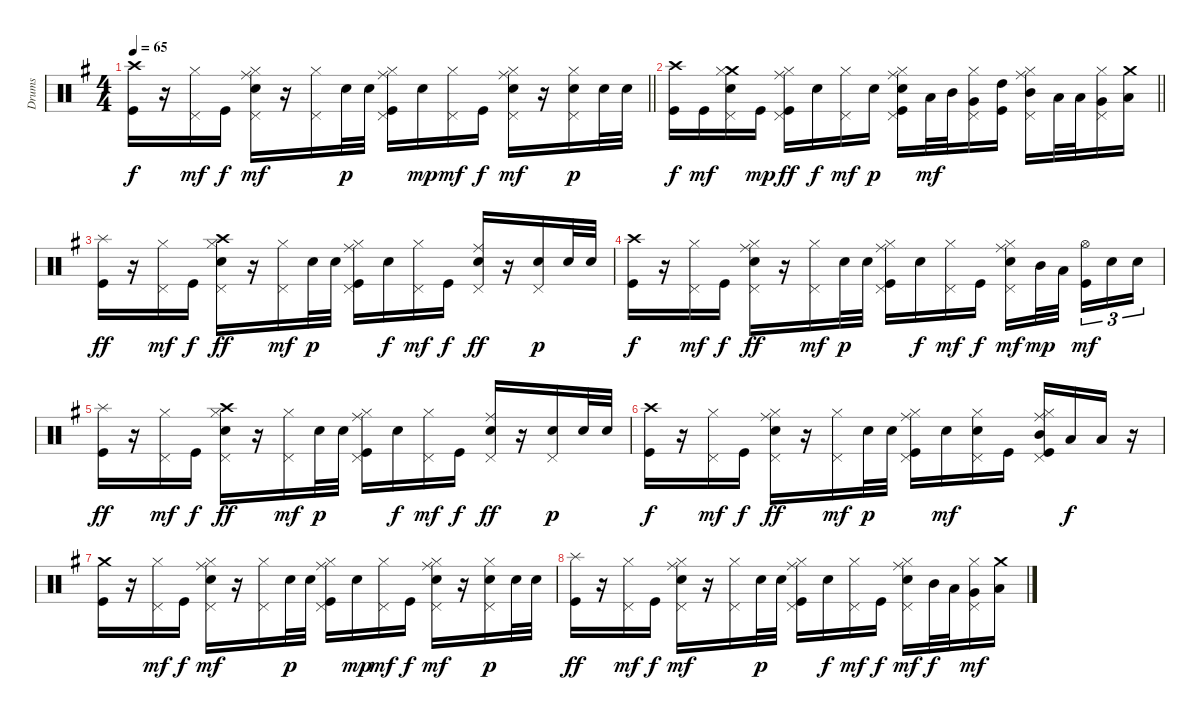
\track ("Drums" "Drums") {instrument percussion}
\staff {score}
\articulation defaults
\ts (4 4)
\tempo 65
\clef neutral
\barLineRight lightlight
\ks eminor
("Crash high (hit)" "Kick (hit)").16{dy f} r.16 ("Hi-Hat (closed)" "Pedal Hi-Hat (hit)").16{dy mf} "Kick (hit)".16{dy f} ("Ride (middle)" "Hi-Hat (closed)" "Pedal Hi-Hat (hit)" "Electric Snare (hit)").16{dy mf} r.16 ("Hi-Hat (closed)" "Pedal Hi-Hat (hit)").16 "Electric Snare (hit)".32{dy p} "Electric Snare (hit)".32 ("Ride (middle)" "Hi-Hat (closed)" "Pedal Hi-Hat (hit)" "Kick (hit)").16 "Electric Snare (hit)".16{dy mp} ("Hi-Hat (closed)" "Pedal Hi-Hat (hit)").16{dy mf} "Kick (hit)".16{dy f} ("Ride (middle)" "Hi-Hat (closed)" "Pedal Hi-Hat (hit)" "Electric Snare (hit)").16{dy mf} r.16 ("Hi-Hat (closed)" "Pedal Hi-Hat (hit)" "Electric Snare (hit)").16{dy p} "Electric Snare (hit)".32 "Electric Snare (hit)".32 |
\barLineRight lightlight
("Crash high (hit)" "Kick (hit)").16{dy f} "Kick (hit)".16{dy mf} ("Crash medium (hit)" "Hi-Hat (closed)" "Pedal Hi-Hat (hit)" "Electric Snare (hit)").16 "Kick (hit)".16{dy mp} ("Ride (middle)" "Hi-Hat (closed)" "Pedal Hi-Hat (hit)" "Kick (hit)").16{dy ff} "Electric Snare (hit)".16{dy f} ("Hi-Hat (closed)" "Pedal Hi-Hat (hit)").16{dy mf} "Electric Snare (hit)".16{dy p} ("Ride (middle)" "Hi-Hat (closed)" "Pedal Hi-Hat (hit)" "Electric Snare (hit)" "Kick (hit)").16 "Low Tom (hit)".32{dy mf} "Mid Tom (hit)".32 ("Hi-Hat (closed)" "Pedal Hi-Hat (hit)" "Very Low Tom (hit)").16 ("High Tom (hit)" "Kick (hit)").16 ("Ride (middle)" "Hi-Hat (closed)" "Pedal Hi-Hat (hit)" "Mid Tom (hit)").16 "Low Tom (hit)".32 "Low Tom (hit)".32 ("Hi-Hat (closed)" "Pedal Hi-Hat (hit)" "Very Low Tom (hit)").16 ("Crash medium (hit)" "Low Floor Tom (hit)").16 |
\section ("" "")
("Splash (hit)" "Kick (hit)").16{dy ff} r.16 ("Hi-Hat (closed)" "Pedal Hi-Hat (hit)").16{dy mf} "Kick (hit)".16{dy f} ("Crash high (hit)" "Hi-Hat (closed)" "Pedal Hi-Hat (hit)" "Electric Snare (hit)").16{dy ff} r.16 ("Hi-Hat (closed)" "Pedal Hi-Hat (hit)").16{dy mf} "Electric Snare (hit)".32{dy p} "Electric Snare (hit)".32 ("Ride (middle)" "Hi-Hat (closed)" "Pedal Hi-Hat (hit)" "Kick (hit)").16 "Electric Snare (hit)".16{dy f} ("Hi-Hat (closed)" "Pedal Hi-Hat (hit)").16{dy mf} "Kick (hit)".16{dy f} ("Ride (middle)" "Pedal Hi-Hat (hit)" "Electric Snare (hit)").16{dy ff} r.16 ("Pedal Hi-Hat (hit)" "Electric Snare (hit)").16{dy p} "Electric Snare (hit)".32 "Electric Snare (hit)".32 |
("Crash high (hit)" "Kick (hit)").16{dy f} r.16 ("Hi-Hat (closed)" "Pedal Hi-Hat (hit)").16{dy mf} "Kick (hit)".16{dy f} ("Ride (middle)" "Hi-Hat (closed)" "Pedal Hi-Hat (hit)" "Electric Snare (hit)").16{dy ff} r.16 ("Hi-Hat (closed)" "Pedal Hi-Hat (hit)").16{dy mf} "Electric Snare (hit)".32{dy p} "Electric Snare (hit)".32 ("Ride (middle)" "Hi-Hat (closed)" "Pedal Hi-Hat (hit)" "Kick (hit)").16 "Electric Snare (hit)".16{dy f} ("Hi-Hat (closed)" "Pedal Hi-Hat (hit)").16{dy mf} "Kick (hit)".16{dy f} ("Ride (middle)" "Hi-Hat (closed)" "Pedal Hi-Hat (hit)" "Electric Snare (hit)").16{dy mf} "Mid Tom (hit)".32{dy mp} "Low Tom (hit)".32{beam splitsecondary} ("Hi-Hat (open)" "Kick (hit)").16{tu (3 2) dy mf} "Electric Snare (hit)".16{tu (3 2)} "Electric Snare (hit)".16{tu (3 2)} |
("Splash (hit)" "Kick (hit)").16{dy ff} r.16 ("Hi-Hat (closed)" "Pedal Hi-Hat (hit)").16{dy mf} "Kick (hit)".16{dy f} ("Crash high (hit)" "Hi-Hat (closed)" "Pedal Hi-Hat (hit)" "Electric Snare (hit)").16{dy ff} r.16 ("Hi-Hat (closed)" "Pedal Hi-Hat (hit)").16{dy mf} "Electric Snare (hit)".32{dy p} "Electric Snare (hit)".32 ("Ride (middle)" "Hi-Hat (closed)" "Pedal Hi-Hat (hit)" "Kick (hit)").16 "Electric Snare (hit)".16{dy f} ("Hi-Hat (closed)" "Pedal Hi-Hat (hit)").16{dy mf} "Kick (hit)".16{dy f} ("Ride (middle)" "Pedal Hi-Hat (hit)" "Electric Snare (hit)").16{dy ff} r.16 ("Pedal Hi-Hat (hit)" "Electric Snare (hit)").16{dy p} "Electric Snare (hit)".32 "Electric Snare (hit)".32 |
("Crash high (hit)" "Kick (hit)").16{dy f} r.16 ("Hi-Hat (closed)" "Pedal Hi-Hat (hit)").16{dy mf} "Kick (hit)".16{dy f} ("Ride (middle)" "Hi-Hat (closed)" "Pedal Hi-Hat (hit)" "Electric Snare (hit)").16{dy ff} r.16 ("Hi-Hat (closed)" "Pedal Hi-Hat (hit)").16{dy mf} "Electric Snare (hit)".32{dy p} "Electric Snare (hit)".32 ("Ride (middle)" "Hi-Hat (closed)" "Pedal Hi-Hat (hit)" "Kick (hit)").16 "Electric Snare (hit)".16{dy mf} ("Hi-Hat (closed)" "Pedal Hi-Hat (hit)" "Electric Snare (hit)").16 "Kick (hit)".16 ("Ride (middle)" "Hi-Hat (closed)" "Pedal Hi-Hat (hit)" "Mid Tom (hit)" "Kick (hit)").16 "Low Tom (hit)".16{dy f} "Low Tom (hit)".16 r.16 |
("Crash medium (hit)" "Kick (hit)").16 r.16 ("Hi-Hat (closed)" "Pedal Hi-Hat (hit)").16{dy mf} "Kick (hit)".16{dy f} ("Ride (middle)" "Hi-Hat (closed)" "Pedal Hi-Hat (hit)" "Electric Snare (hit)").16{dy mf} r.16 ("Hi-Hat (closed)" "Pedal Hi-Hat (hit)").16 "Electric Snare (hit)".32{dy p} "Electric Snare (hit)".32 ("Ride (middle)" "Hi-Hat (closed)" "Pedal Hi-Hat (hit)" "Kick (hit)").16 "Electric Snare (hit)".16{dy mp} ("Hi-Hat (closed)" "Pedal Hi-Hat (hit)").16{dy mf} "Kick (hit)".16{dy f} ("Ride (middle)" "Hi-Hat (closed)" "Pedal Hi-Hat (hit)" "Electric Snare (hit)").16{dy mf} r.16 ("Hi-Hat (closed)" "Pedal Hi-Hat (hit)" "Electric Snare (hit)").16{dy p} "Electric Snare (hit)".32 "Electric Snare (hit)".32 |
("Splash (hit)" "Kick (hit)").16{dy ff volume 11} r.16 ("Hi-Hat (closed)" "Pedal Hi-Hat (hit)").16{dy mf} "Kick (hit)".16{dy f} ("Ride (middle)" "Hi-Hat (closed)" "Pedal Hi-Hat (hit)" "Electric Snare (hit)").16{dy mf} r.16 ("Hi-Hat (closed)" "Pedal Hi-Hat (hit)").16 "Electric Snare (hit)".32{dy p} "Electric Snare (hit)".32 ("Ride (middle)" "Hi-Hat (closed)" "Pedal Hi-Hat (hit)" "Kick (hit)").16 "Electric Snare (hit)".16{dy f} ("Hi-Hat (closed)" "Pedal Hi-Hat (hit)").16{dy mf} "Kick (hit)".16{dy f} ("Ride (middle)" "Hi-Hat (closed)" "Pedal Hi-Hat (hit)" "Electric Snare (hit)").16{dy mf} "Mid Tom (hit)".32{dy f} "Low Tom (hit)".32 ("Hi-Hat (closed)" "Pedal Hi-Hat (hit)" "Very Low Tom (hit)").16{dy mf} ("Crash medium (hit)" "Low Floor Tom (hit)").16
